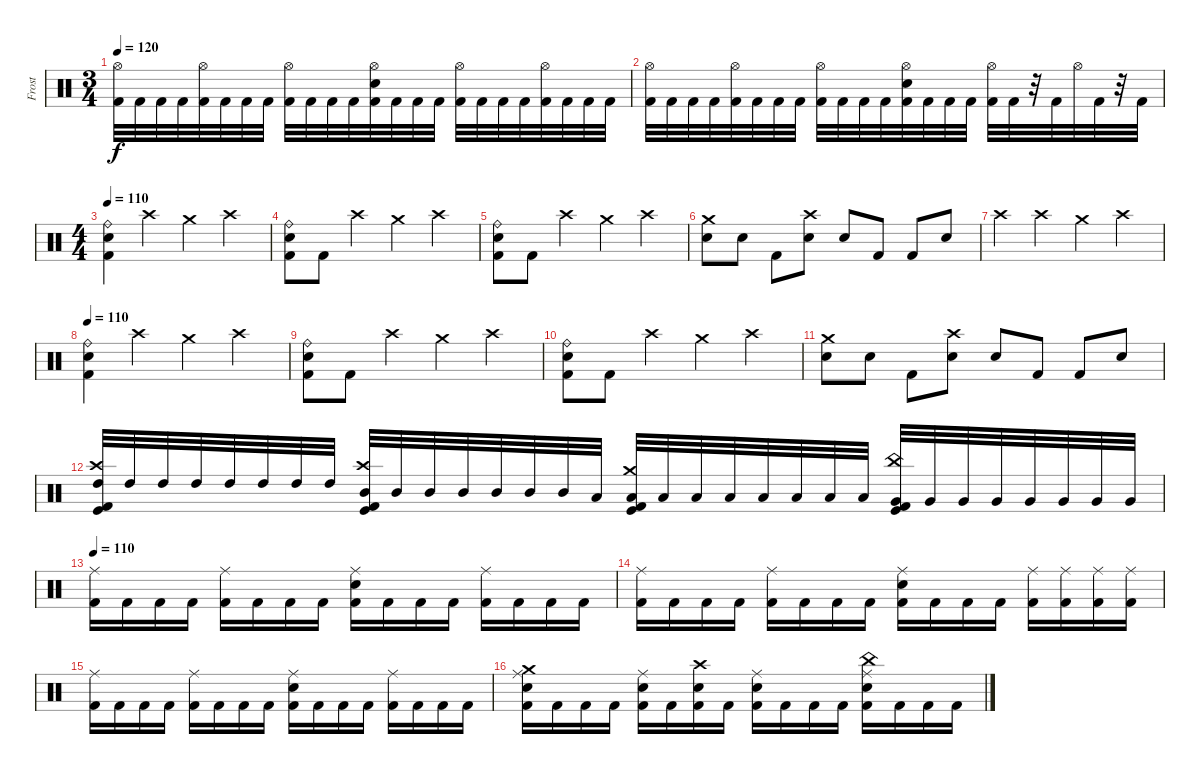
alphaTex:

\track ("Frost" "Frost") {instrument percussion}
\staff {score}
\articulation defaults
\ts (3 4)
\tempo 120
\clef neutral
\ks c
("Kick (hit) 2" "Hi-Hat (open)").32{dy f} "Kick (hit) 2".32 "Kick (hit) 2".32 "Kick (hit) 2".32 ("Kick (hit) 2" "Hi-Hat (open)").32 "Kick (hit) 2".32 "Kick (hit) 2".32 "Kick (hit) 2".32 ("Kick (hit) 2" "Hi-Hat (open)").32 "Kick (hit) 2".32 "Kick (hit) 2".32 "Kick (hit) 2".32 ("Kick (hit) 2" "Electric Snare (hit)" "Hi-Hat (open)").32 "Kick (hit) 2".32 "Kick (hit) 2".32 "Kick (hit) 2".32 ("Kick (hit) 2" "Hi-Hat (open)").32 "Kick (hit) 2".32 "Kick (hit) 2".32 "Kick (hit) 2".32 ("Kick (hit) 2" "Hi-Hat (open)").32 "Kick (hit) 2".32 "Kick (hit) 2".32 "Kick (hit) 2".32 |
("Kick (hit) 2" "Hi-Hat (open)").32 "Kick (hit) 2".32 "Kick (hit) 2".32 "Kick (hit) 2".32 ("Kick (hit) 2" "Hi-Hat (open)").32 "Kick (hit) 2".32 "Kick (hit) 2".32 "Kick (hit) 2".32 ("Kick (hit) 2" "Hi-Hat (open)").32 "Kick (hit) 2".32 "Kick (hit) 2".32 "Kick (hit) 2".32 ("Kick (hit) 2" "Electric Snare (hit)" "Hi-Hat (open)").32 "Kick (hit) 2".32 "Kick (hit) 2".32 "Kick (hit) 2".32 ("Kick (hit) 2" "Hi-Hat (open)").32 "Kick (hit) 2".32 r.32 "Kick (hit) 2".32 "Hi-Hat (open)".32 "Kick (hit) 2".32 r.32 "Kick (hit) 2".32 |
\ts (4 4)
\tempo 110
("Ride (bell)" "Electric Snare (hit)" "Kick (hit) 2").4 "Crash high (hit)".4 "Crash medium (hit)".4 "Crash high (hit)".4 |
("Ride (bell)" "Electric Snare (hit)" "Kick (hit) 2").8 "Kick (hit) 2".8 "Crash high (hit)".4 "Crash medium (hit)".4 "Crash high (hit)".4 |
("Ride (bell)" "Electric Snare (hit)" "Kick (hit) 2").8 "Kick (hit) 2".8 "Crash high (hit)".4 "Crash medium (hit)".4 "Crash high (hit)".4 |
("Electric Snare (hit)" "Crash medium (hit)").8 "Electric Snare (hit)".8 "Kick (hit) 2".8 ("Electric Snare (hit)" "Crash high (hit)").8 "Electric Snare (hit)".8 "Kick (hit) 2".8 "Kick (hit) 2".8 "Electric Snare (hit)".8 |
"Crash high (hit)".4 "Crash high (hit)".4 "Crash medium (hit)".4 "Crash high (hit)".4 |
\tempo 110
("Ride (bell)" "Electric Snare (hit)" "Kick (hit) 2").4 "Crash high (hit)".4 "Crash medium (hit)".4 "Crash high (hit)".4 |
("Ride (bell)" "Electric Snare (hit)" "Kick (hit) 2").8 "Kick (hit) 2".8 "Crash high (hit)".4 "Crash medium (hit)".4 "Crash high (hit)".4 |
("Ride (bell)" "Electric Snare (hit)" "Kick (hit) 2").8 "Kick (hit) 2".8 "Crash high (hit)".4 "Crash medium (hit)".4 "Crash high (hit)".4 |
("Electric Snare (hit)" "Crash medium (hit)").8 "Electric Snare (hit)".8 "Kick (hit) 2".8 ("Electric Snare (hit)" "Crash high (hit)").8 "Electric Snare (hit)".8 "Kick (hit) 2".8 "Kick (hit) 2".8 "Electric Snare (hit)".8 |
("Crash high (hit)" "High Tom (hit)" "Kick (hit) 2" "Kick (hit)").32 "High Tom (hit)".32 "High Tom (hit)".32 "High Tom (hit)".32 "High Tom (hit)".32 "High Tom (hit)".32 "High Tom (hit)".32 "High Tom (hit)".32 ("Crash high (hit)" "Mid Tom (hit)" "Kick (hit) 2" "Kick (hit)").32 "Mid Tom (hit)".32 "Mid Tom (hit)".32 "Mid Tom (hit)".32 "Mid Tom (hit)".32 "Mid Tom (hit)".32 "Mid Tom (hit)".32 "Low Tom (hit)".32 ("Crash medium (hit)" "Low Tom (hit)" "Kick (hit) 2" "Kick (hit)").32 "Low Tom (hit)".32 "Low Tom (hit)".32 "Low Tom (hit)".32 "Low Tom (hit)".32 "Low Tom (hit)".32 "Low Tom (hit)".32 "Low Tom (hit)".32 ("China (hit)" "Very Low Tom (hit)" "Kick (hit) 2" "Kick (hit)").32 "Very Low Tom (hit)".32 "Very Low Tom (hit)".32 "Very Low Tom (hit)".32 "Very Low Tom (hit)".32 "Very Low Tom (hit)".32 "Very Low Tom (hit)".32 "Very Low Tom (hit)".32 |
\tempo 110
("Kick (hit) 2" "Ride (middle)").16 "Kick (hit) 2".16 "Kick (hit) 2".16 "Kick (hit) 2".16 ("Kick (hit) 2" "Ride (middle)").16 "Kick (hit) 2".16 "Kick (hit) 2".16 "Kick (hit) 2".16 ("Kick (hit) 2" "Electric Snare (hit)" "Ride (middle)").16 "Kick (hit) 2".16 "Kick (hit) 2".16 "Kick (hit) 2".16 ("Kick (hit) 2" "Ride (middle)").16 "Kick (hit) 2".16 "Kick (hit) 2".16 "Kick (hit) 2".16 |
("Kick (hit) 2" "Ride (middle)").16 "Kick (hit) 2".16 "Kick (hit) 2".16 "Kick (hit) 2".16 ("Kick (hit) 2" "Ride (middle)").16 "Kick (hit) 2".16 "Kick (hit) 2".16 "Kick (hit) 2".16 ("Kick (hit) 2" "Electric Snare (hit)" "Ride (middle)").16 "Kick (hit) 2".16 "Kick (hit) 2".16 "Kick (hit) 2".16 ("Kick (hit) 2" "Ride (middle)").16 ("Kick (hit) 2" "Ride (middle)").16 ("Kick (hit) 2" "Ride (middle)").16 ("Kick (hit) 2" "Ride (middle)").16 |
("Kick (hit) 2" "Ride (middle)").16 "Kick (hit) 2".16 "Kick (hit) 2".16 "Kick (hit) 2".16 ("Kick (hit) 2" "Ride (middle)").16 "Kick (hit) 2".16 "Kick (hit) 2".16 "Kick (hit) 2".16 ("Kick (hit) 2" "Electric Snare (hit)" "Ride (middle)").16 "Kick (hit) 2".16 "Kick (hit) 2".16 "Kick (hit) 2".16 ("Kick (hit) 2" "Ride (middle)").16 "Kick (hit) 2".16 "Kick (hit) 2".16 "Kick (hit) 2".16 |
("Crash medium (hit)" "Kick (hit) 2" "Electric Snare (hit)" "Ride (middle)").16 "Kick (hit) 2".16 "Kick (hit) 2".16 "Kick (hit) 2".16 ("Kick (hit) 2" "Electric Snare (hit)" "Ride (middle)").16 "Kick (hit) 2".16 ("Crash high (hit)" "Kick (hit) 2" "Electric Snare (hit)").16 "Kick (hit) 2".16 ("Kick (hit) 2" "Electric Snare (hit)" "Ride (middle)").16 "Kick (hit) 2".16 "Kick (hit) 2".16 "Kick (hit) 2".16 ("China (hit)" "Kick (hit) 2" "Electric Snare (hit)" "Ride (middle)").16 "Kick (hit) 2".16 "Kick (hit) 2".16 "Kick (hit) 2".16
